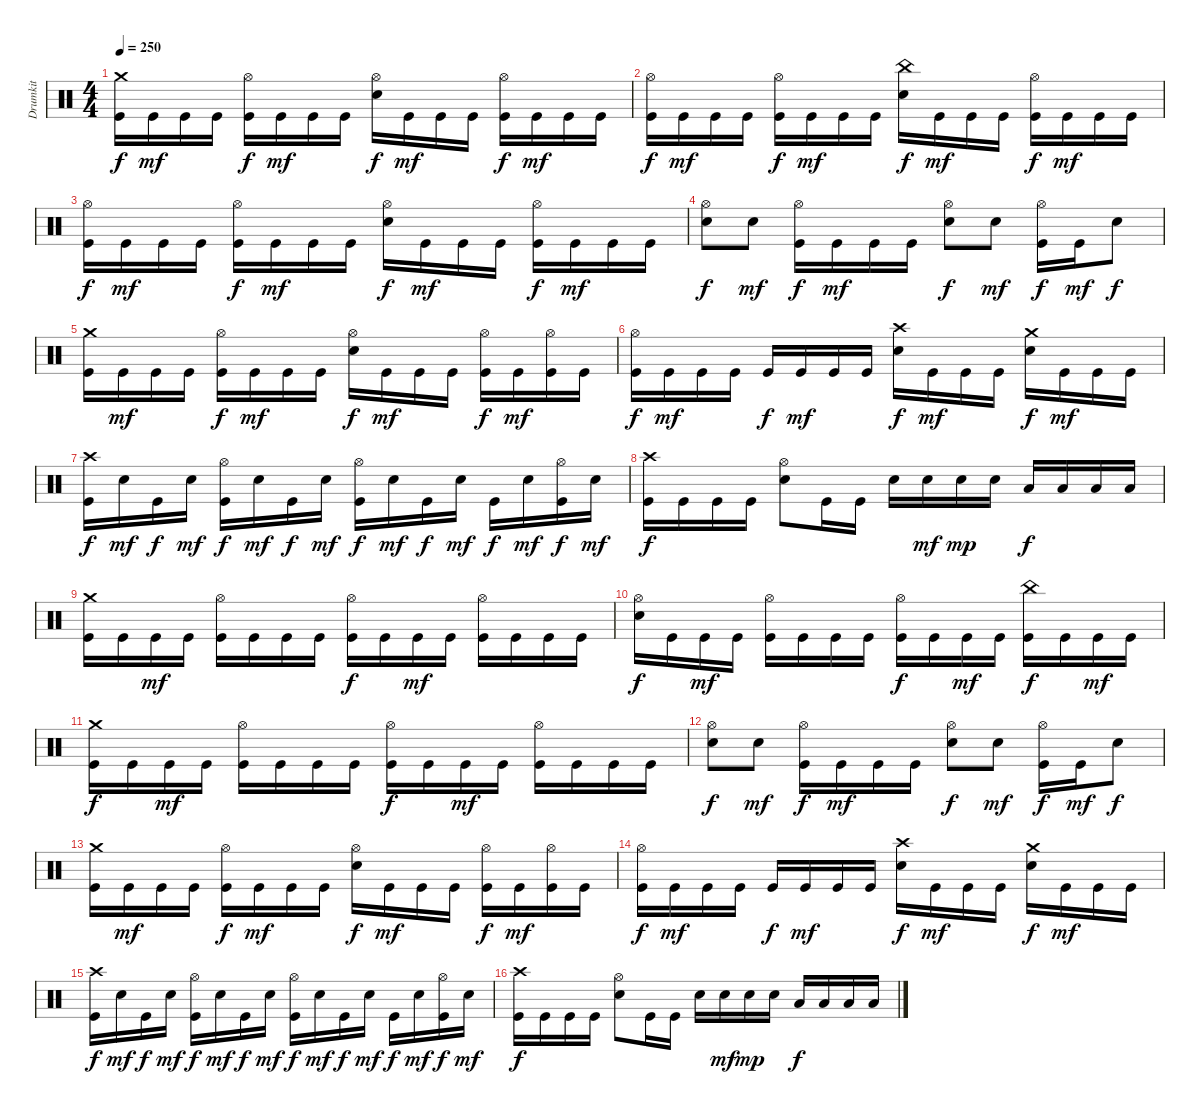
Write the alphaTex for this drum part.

\track ("Drumkit" "Drumkit") {instrument percussion}
\staff {score}
\articulation defaults
\ts (4 4)
\tempo 250
\clef neutral
\ks c
("Kick (hit)" "Crash medium (hit)").16{dy f} "Kick (hit)".16{dy mf} "Kick (hit)".16 "Kick (hit)".16 ("Kick (hit)" "Hi-Hat (open)").16{dy f} "Kick (hit)".16{dy mf} "Kick (hit)".16 "Kick (hit)".16 ("Snare (hit) 2" "Hi-Hat (open)").16{dy f} "Kick (hit)".16{dy mf} "Kick (hit)".16 "Kick (hit)".16 ("Kick (hit)" "Hi-Hat (open)").16{dy f} "Kick (hit)".16{dy mf} "Kick (hit)".16 "Kick (hit)".16 |
("Kick (hit)" "Hi-Hat (open)").16{dy f} "Kick (hit)".16{dy mf} "Kick (hit)".16 "Kick (hit)".16 ("Kick (hit)" "Hi-Hat (open)").16{dy f} "Kick (hit)".16{dy mf} "Kick (hit)".16 "Kick (hit)".16 ("Snare (hit) 2" "China (hit)").16{dy f} "Kick (hit)".16{dy mf} "Kick (hit)".16 "Kick (hit)".16 ("Kick (hit)" "Hi-Hat (open)").16{dy f} "Kick (hit)".16{dy mf} "Kick (hit)".16 "Kick (hit)".16 |
("Kick (hit)" "Hi-Hat (open)").16{dy f} "Kick (hit)".16{dy mf} "Kick (hit)".16 "Kick (hit)".16 ("Kick (hit)" "Hi-Hat (open)").16{dy f} "Kick (hit)".16{dy mf} "Kick (hit)".16 "Kick (hit)".16 ("Snare (hit) 2" "Hi-Hat (open)").16{dy f} "Kick (hit)".16{dy mf} "Kick (hit)".16 "Kick (hit)".16 ("Kick (hit)" "Hi-Hat (open)").16{dy f} "Kick (hit)".16{dy mf} "Kick (hit)".16 "Kick (hit)".16 |
("Snare (hit) 2" "Hi-Hat (open)").8{dy f} "Snare (hit) 2".8{dy mf} ("Kick (hit)" "Hi-Hat (open)").16{dy f} "Kick (hit)".16{dy mf} "Kick (hit)".16 "Kick (hit)".16 ("Snare (hit) 2" "Hi-Hat (open)").8{dy f} "Snare (hit) 2".8{dy mf} ("Kick (hit)" "Hi-Hat (open)").16{dy f} "Kick (hit)".16{dy mf} "Snare (hit) 2".8{dy f} |
("Kick (hit)" "Crash medium (hit)").16 "Kick (hit)".16{dy mf} "Kick (hit)".16 "Kick (hit)".16 ("Kick (hit)" "Hi-Hat (open)").16{dy f} "Kick (hit)".16{dy mf} "Kick (hit)".16 "Kick (hit)".16 ("Snare (hit) 2" "Hi-Hat (open)").16{dy f} "Kick (hit)".16{dy mf} "Kick (hit)".16 "Kick (hit)".16 ("Kick (hit)" "Hi-Hat (open)").16{dy f} "Kick (hit)".16{dy mf} ("Kick (hit)" "Hi-Hat (open)").16 "Kick (hit)".16 |
("Kick (hit)" "Hi-Hat (open)").16{dy f} "Kick (hit)".16{dy mf} "Kick (hit)".16 "Kick (hit)".16 "Kick (hit)".16{dy f} "Kick (hit)".16{dy mf} "Kick (hit)".16 "Kick (hit)".16 ("Snare (hit) 2" "Crash high (hit)").16{dy f} "Kick (hit)".16{dy mf} "Kick (hit)".16 "Kick (hit)".16 ("Crash medium (hit)" "Snare (hit) 2").16{dy f} "Kick (hit)".16{dy mf} "Kick (hit)".16 "Kick (hit)".16 |
("Kick (hit)" "Crash high (hit)").16{dy f} "Snare (hit) 2".16{dy mf} "Kick (hit)".16{dy f} "Snare (hit) 2".16{dy mf} ("Kick (hit)" "Hi-Hat (open)").16{dy f} "Snare (hit) 2".16{dy mf} "Kick (hit)".16{dy f} "Snare (hit) 2".16{dy mf} ("Kick (hit)" "Hi-Hat (open)").16{dy f} "Snare (hit) 2".16{dy mf} "Kick (hit)".16{dy f} "Snare (hit) 2".16{dy mf} "Kick (hit)".16{dy f} "Snare (hit) 2".16{dy mf} ("Kick (hit)" "Hi-Hat (open)").16{dy f} "Snare (hit) 2".16{dy mf} |
("Kick (hit)" "Crash high (hit)").16{dy f} "Kick (hit)".16 "Kick (hit)".16 "Kick (hit)".16 ("Snare (hit) 2" "Hi-Hat (open)").8 "Kick (hit)".16 "Kick (hit)".16 "Snare (hit) 2".16 "Snare (hit) 2".16{dy mf} "Snare (hit) 2".16{dy mp} "Snare (hit) 2".16 "Low Floor Tom (hit)".16{dy f} "Low Floor Tom (hit)".16 "Low Floor Tom (hit)".16 "Low Floor Tom (hit)".16 |
("Kick (hit)" "Crash medium (hit)").16 "Kick (hit)".16 "Kick (hit)".16{dy mf} "Kick (hit)".16 ("Kick (hit)" "Hi-Hat (open)").16 "Kick (hit)".16 "Kick (hit)".16 "Kick (hit)".16 ("Hi-Hat (open)" "Kick (hit)").16{dy f} "Kick (hit)".16 "Kick (hit)".16{dy mf} "Kick (hit)".16 ("Kick (hit)" "Hi-Hat (open)").16 "Kick (hit)".16 "Kick (hit)".16 "Kick (hit)".16 |
("Hi-Hat (open)" "Snare (hit) 2").16{dy f} "Kick (hit)".16 "Kick (hit)".16{dy mf} "Kick (hit)".16 ("Kick (hit)" "Hi-Hat (open)").16 "Kick (hit)".16 "Kick (hit)".16 "Kick (hit)".16 ("Kick (hit)" "Hi-Hat (open)").16{dy f} "Kick (hit)".16 "Kick (hit)".16{dy mf} "Kick (hit)".16 ("Kick (hit)" "China (hit)").16{dy f} "Kick (hit)".16 "Kick (hit)".16{dy mf} "Kick (hit)".16 |
("Kick (hit)" "Crash medium (hit)").16{dy f} "Kick (hit)".16 "Kick (hit)".16{dy mf} "Kick (hit)".16 ("Kick (hit)" "Hi-Hat (open)").16 "Kick (hit)".16 "Kick (hit)".16 "Kick (hit)".16 ("Hi-Hat (open)" "Kick (hit)").16{dy f} "Kick (hit)".16 "Kick (hit)".16{dy mf} "Kick (hit)".16 ("Kick (hit)" "Hi-Hat (open)").16 "Kick (hit)".16 "Kick (hit)".16 "Kick (hit)".16 |
("Snare (hit) 2" "Hi-Hat (open)").8{dy f} "Snare (hit) 2".8{dy mf} ("Kick (hit)" "Hi-Hat (open)").16{dy f} "Kick (hit)".16{dy mf} "Kick (hit)".16 "Kick (hit)".16 ("Snare (hit) 2" "Hi-Hat (open)").8{dy f} "Snare (hit) 2".8{dy mf} ("Kick (hit)" "Hi-Hat (open)").16{dy f} "Kick (hit)".16{dy mf} "Snare (hit) 2".8{dy f} |
("Kick (hit)" "Crash medium (hit)").16 "Kick (hit)".16{dy mf} "Kick (hit)".16 "Kick (hit)".16 ("Kick (hit)" "Hi-Hat (open)").16{dy f} "Kick (hit)".16{dy mf} "Kick (hit)".16 "Kick (hit)".16 ("Snare (hit) 2" "Hi-Hat (open)").16{dy f} "Kick (hit)".16{dy mf} "Kick (hit)".16 "Kick (hit)".16 ("Kick (hit)" "Hi-Hat (open)").16{dy f} "Kick (hit)".16{dy mf} ("Kick (hit)" "Hi-Hat (open)").16 "Kick (hit)".16 |
("Kick (hit)" "Hi-Hat (open)").16{dy f} "Kick (hit)".16{dy mf} "Kick (hit)".16 "Kick (hit)".16 "Kick (hit)".16{dy f} "Kick (hit)".16{dy mf} "Kick (hit)".16 "Kick (hit)".16 ("Snare (hit) 2" "Crash high (hit)").16{dy f} "Kick (hit)".16{dy mf} "Kick (hit)".16 "Kick (hit)".16 ("Crash medium (hit)" "Snare (hit) 2").16{dy f} "Kick (hit)".16{dy mf} "Kick (hit)".16 "Kick (hit)".16 |
("Kick (hit)" "Crash high (hit)").16{dy f} "Snare (hit) 2".16{dy mf} "Kick (hit)".16{dy f} "Snare (hit) 2".16{dy mf} ("Kick (hit)" "Hi-Hat (open)").16{dy f} "Snare (hit) 2".16{dy mf} "Kick (hit)".16{dy f} "Snare (hit) 2".16{dy mf} ("Kick (hit)" "Hi-Hat (open)").16{dy f} "Snare (hit) 2".16{dy mf} "Kick (hit)".16{dy f} "Snare (hit) 2".16{dy mf} "Kick (hit)".16{dy f} "Snare (hit) 2".16{dy mf} ("Kick (hit)" "Hi-Hat (open)").16{dy f} "Snare (hit) 2".16{dy mf} |
("Kick (hit)" "Crash high (hit)").16{dy f} "Kick (hit)".16 "Kick (hit)".16 "Kick (hit)".16 ("Snare (hit) 2" "Hi-Hat (open)").8 "Kick (hit)".16 "Kick (hit)".16 "Snare (hit) 2".16 "Snare (hit) 2".16{dy mf} "Snare (hit) 2".16{dy mp} "Snare (hit) 2".16 "Low Floor Tom (hit)".16{dy f} "Low Floor Tom (hit)".16 "Low Floor Tom (hit)".16 "Low Floor Tom (hit)".16
